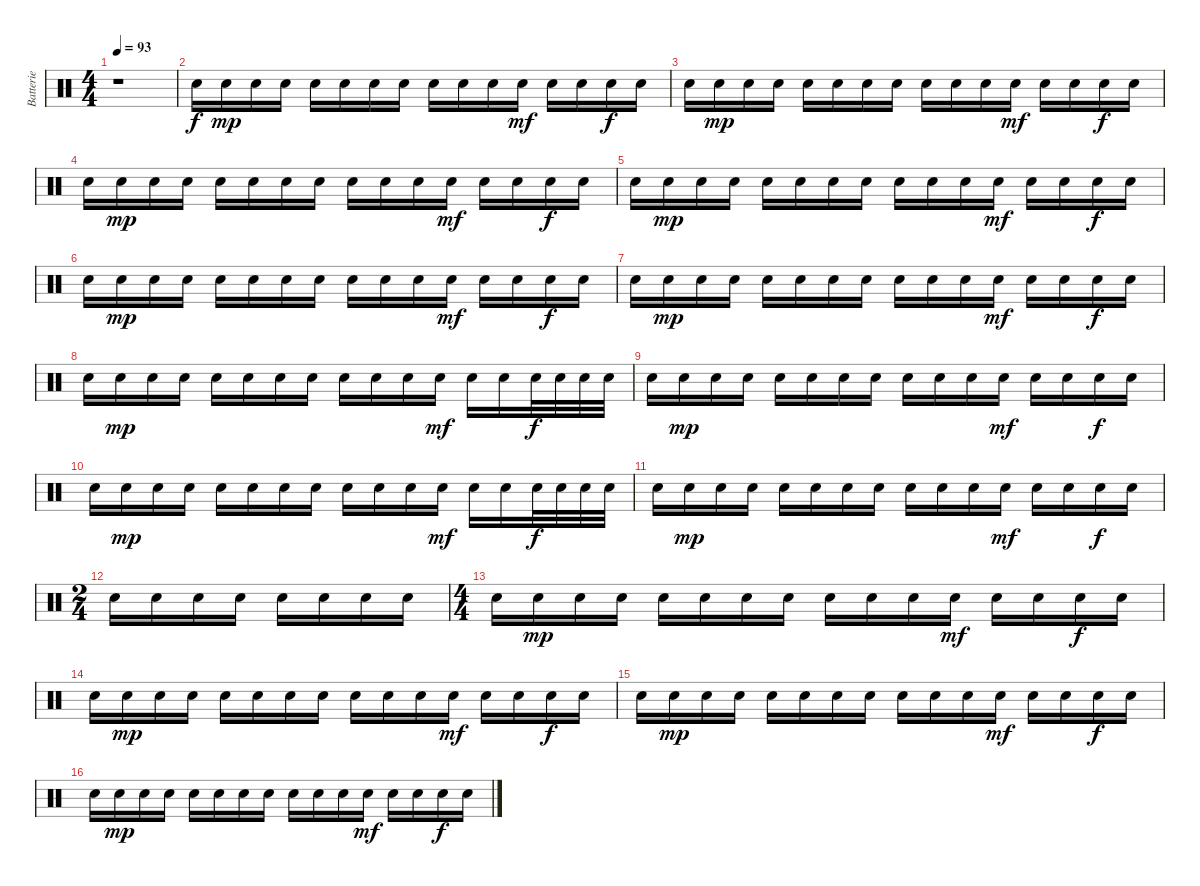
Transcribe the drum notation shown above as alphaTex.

\track ("Batterie" "Batterie") {instrument percussion}
\staff {score}
\articulation defaults
\ts (4 4)
\tempo 93
\clef neutral
\ks c
r.1{dy f} |
"Snare (hit) 2".16 "Snare (hit) 2".16{dy mp} "Snare (hit) 2".16 "Snare (hit) 2".16 "Snare (hit) 2".16 "Snare (hit) 2".16 "Snare (hit) 2".16 "Snare (hit) 2".16 "Snare (hit) 2".16 "Snare (hit) 2".16 "Snare (hit) 2".16 "Snare (hit) 2".16{dy mf} "Snare (hit) 2".16 "Snare (hit) 2".16 "Snare (hit) 2".16{dy f} "Snare (hit) 2".16 |
"Snare (hit) 2".16 "Snare (hit) 2".16{dy mp} "Snare (hit) 2".16 "Snare (hit) 2".16 "Snare (hit) 2".16 "Snare (hit) 2".16 "Snare (hit) 2".16 "Snare (hit) 2".16 "Snare (hit) 2".16 "Snare (hit) 2".16 "Snare (hit) 2".16 "Snare (hit) 2".16{dy mf} "Snare (hit) 2".16 "Snare (hit) 2".16 "Snare (hit) 2".16{dy f} "Snare (hit) 2".16 |
"Snare (hit) 2".16 "Snare (hit) 2".16{dy mp} "Snare (hit) 2".16 "Snare (hit) 2".16 "Snare (hit) 2".16 "Snare (hit) 2".16 "Snare (hit) 2".16 "Snare (hit) 2".16 "Snare (hit) 2".16 "Snare (hit) 2".16 "Snare (hit) 2".16 "Snare (hit) 2".16{dy mf} "Snare (hit) 2".16 "Snare (hit) 2".16 "Snare (hit) 2".16{dy f} "Snare (hit) 2".16 |
"Snare (hit) 2".16 "Snare (hit) 2".16{dy mp} "Snare (hit) 2".16 "Snare (hit) 2".16 "Snare (hit) 2".16 "Snare (hit) 2".16 "Snare (hit) 2".16 "Snare (hit) 2".16 "Snare (hit) 2".16 "Snare (hit) 2".16 "Snare (hit) 2".16 "Snare (hit) 2".16{dy mf} "Snare (hit) 2".16 "Snare (hit) 2".16 "Snare (hit) 2".16{dy f} "Snare (hit) 2".16 |
"Snare (hit) 2".16 "Snare (hit) 2".16{dy mp} "Snare (hit) 2".16 "Snare (hit) 2".16 "Snare (hit) 2".16 "Snare (hit) 2".16 "Snare (hit) 2".16 "Snare (hit) 2".16 "Snare (hit) 2".16 "Snare (hit) 2".16 "Snare (hit) 2".16 "Snare (hit) 2".16{dy mf} "Snare (hit) 2".16 "Snare (hit) 2".16 "Snare (hit) 2".16{dy f} "Snare (hit) 2".16 |
"Snare (hit) 2".16 "Snare (hit) 2".16{dy mp} "Snare (hit) 2".16 "Snare (hit) 2".16 "Snare (hit) 2".16 "Snare (hit) 2".16 "Snare (hit) 2".16 "Snare (hit) 2".16 "Snare (hit) 2".16 "Snare (hit) 2".16 "Snare (hit) 2".16 "Snare (hit) 2".16{dy mf} "Snare (hit) 2".16 "Snare (hit) 2".16 "Snare (hit) 2".16{dy f} "Snare (hit) 2".16 |
"Snare (hit) 2".16 "Snare (hit) 2".16{dy mp} "Snare (hit) 2".16 "Snare (hit) 2".16 "Snare (hit) 2".16 "Snare (hit) 2".16 "Snare (hit) 2".16 "Snare (hit) 2".16 "Snare (hit) 2".16 "Snare (hit) 2".16 "Snare (hit) 2".16 "Snare (hit) 2".16{dy mf} "Snare (hit) 2".16 "Snare (hit) 2".16 "Snare (hit) 2".32{dy f} "Snare (hit) 2".32 "Snare (hit) 2".32 "Snare (hit) 2".32 |
"Snare (hit) 2".16 "Snare (hit) 2".16{dy mp} "Snare (hit) 2".16 "Snare (hit) 2".16 "Snare (hit) 2".16 "Snare (hit) 2".16 "Snare (hit) 2".16 "Snare (hit) 2".16 "Snare (hit) 2".16 "Snare (hit) 2".16 "Snare (hit) 2".16 "Snare (hit) 2".16{dy mf} "Snare (hit) 2".16 "Snare (hit) 2".16 "Snare (hit) 2".16{dy f} "Snare (hit) 2".16 |
"Snare (hit) 2".16 "Snare (hit) 2".16{dy mp} "Snare (hit) 2".16 "Snare (hit) 2".16 "Snare (hit) 2".16 "Snare (hit) 2".16 "Snare (hit) 2".16 "Snare (hit) 2".16 "Snare (hit) 2".16 "Snare (hit) 2".16 "Snare (hit) 2".16 "Snare (hit) 2".16{dy mf} "Snare (hit) 2".16 "Snare (hit) 2".16 "Snare (hit) 2".32{dy f} "Snare (hit) 2".32 "Snare (hit) 2".32 "Snare (hit) 2".32 |
"Snare (hit) 2".16 "Snare (hit) 2".16{dy mp} "Snare (hit) 2".16 "Snare (hit) 2".16 "Snare (hit) 2".16 "Snare (hit) 2".16 "Snare (hit) 2".16 "Snare (hit) 2".16 "Snare (hit) 2".16 "Snare (hit) 2".16 "Snare (hit) 2".16 "Snare (hit) 2".16{dy mf} "Snare (hit) 2".16 "Snare (hit) 2".16 "Snare (hit) 2".16{dy f} "Snare (hit) 2".16 |
\ts (2 4)
"Snare (hit) 2".16 "Snare (hit) 2".16 "Snare (hit) 2".16 "Snare (hit) 2".16 "Snare (hit) 2".16 "Snare (hit) 2".16 "Snare (hit) 2".16 "Snare (hit) 2".16 |
\ts (4 4)
"Snare (hit) 2".16 "Snare (hit) 2".16{dy mp} "Snare (hit) 2".16 "Snare (hit) 2".16 "Snare (hit) 2".16 "Snare (hit) 2".16 "Snare (hit) 2".16 "Snare (hit) 2".16 "Snare (hit) 2".16 "Snare (hit) 2".16 "Snare (hit) 2".16 "Snare (hit) 2".16{dy mf} "Snare (hit) 2".16 "Snare (hit) 2".16 "Snare (hit) 2".16{dy f} "Snare (hit) 2".16 |
"Snare (hit) 2".16 "Snare (hit) 2".16{dy mp} "Snare (hit) 2".16 "Snare (hit) 2".16 "Snare (hit) 2".16 "Snare (hit) 2".16 "Snare (hit) 2".16 "Snare (hit) 2".16 "Snare (hit) 2".16 "Snare (hit) 2".16 "Snare (hit) 2".16 "Snare (hit) 2".16{dy mf} "Snare (hit) 2".16 "Snare (hit) 2".16 "Snare (hit) 2".16{dy f} "Snare (hit) 2".16 |
"Snare (hit) 2".16 "Snare (hit) 2".16{dy mp} "Snare (hit) 2".16 "Snare (hit) 2".16 "Snare (hit) 2".16 "Snare (hit) 2".16 "Snare (hit) 2".16 "Snare (hit) 2".16 "Snare (hit) 2".16 "Snare (hit) 2".16 "Snare (hit) 2".16 "Snare (hit) 2".16{dy mf} "Snare (hit) 2".16 "Snare (hit) 2".16 "Snare (hit) 2".16{dy f} "Snare (hit) 2".16 |
"Snare (hit) 2".16 "Snare (hit) 2".16{dy mp} "Snare (hit) 2".16 "Snare (hit) 2".16 "Snare (hit) 2".16 "Snare (hit) 2".16 "Snare (hit) 2".16 "Snare (hit) 2".16 "Snare (hit) 2".16 "Snare (hit) 2".16 "Snare (hit) 2".16 "Snare (hit) 2".16{dy mf} "Snare (hit) 2".16 "Snare (hit) 2".16 "Snare (hit) 2".16{dy f} "Snare (hit) 2".16
